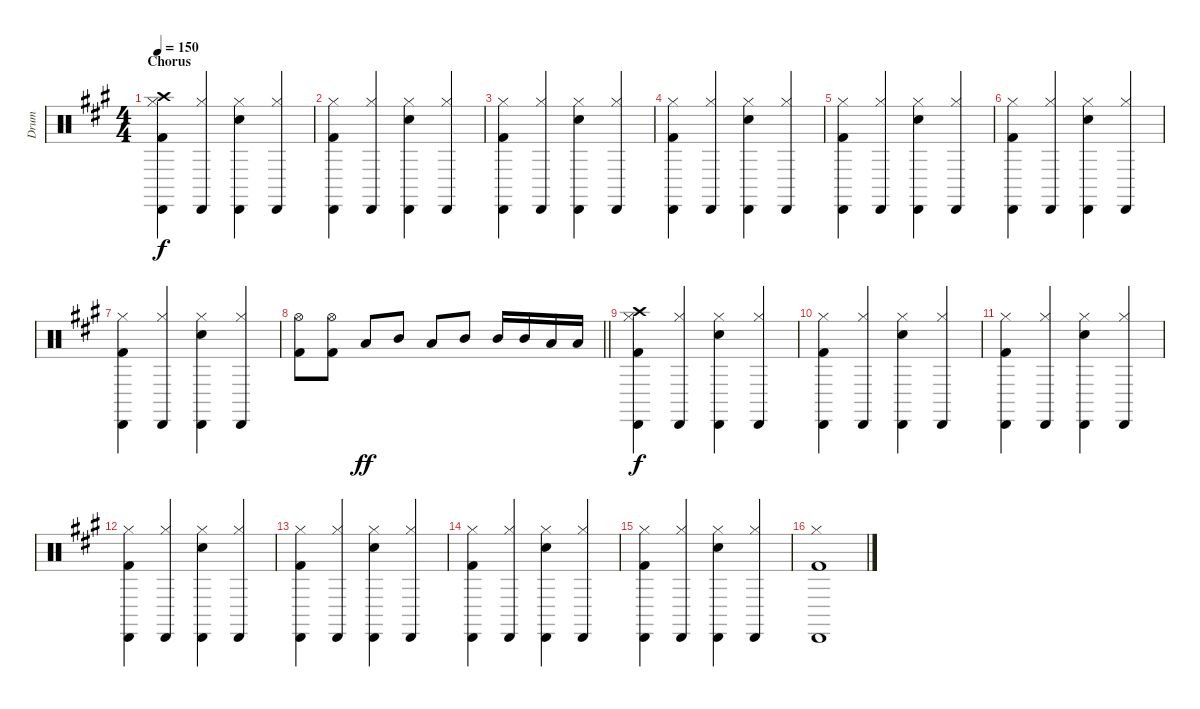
\track ("Drum " "Drum ") {instrument percussion}
\staff {score}
\articulation defaults
\ts (4 4)
\section ("" "Chorus")
\tempo 150
\clef neutral
\ks a
("Hi-Hat (closed)" "Crash high (hit)" "Cabasa (hit)" "Kick (hit) 2").4{dy f} ("Hi-Hat (closed)" "Cabasa (hit)").4 ("Hi-Hat (closed)" "Snare (hit) 2" "Cabasa (hit)").4 ("Hi-Hat (closed)" "Cabasa (hit)").4 |
("Hi-Hat (closed)" "Cabasa (hit)" "Kick (hit) 2").4 ("Hi-Hat (closed)" "Cabasa (hit)").4 ("Hi-Hat (closed)" "Snare (hit) 2" "Cabasa (hit)").4 ("Hi-Hat (closed)" "Cabasa (hit)").4 |
("Hi-Hat (closed)" "Cabasa (hit)" "Kick (hit) 2").4 ("Hi-Hat (closed)" "Cabasa (hit)").4 ("Hi-Hat (closed)" "Snare (hit) 2" "Cabasa (hit)").4 ("Hi-Hat (closed)" "Cabasa (hit)").4 |
("Hi-Hat (closed)" "Cabasa (hit)" "Kick (hit) 2").4 ("Hi-Hat (closed)" "Cabasa (hit)").4 ("Hi-Hat (closed)" "Snare (hit) 2" "Cabasa (hit)").4 ("Hi-Hat (closed)" "Cabasa (hit)").4 |
("Hi-Hat (closed)" "Cabasa (hit)" "Kick (hit) 2").4 ("Hi-Hat (closed)" "Cabasa (hit)").4 ("Hi-Hat (closed)" "Snare (hit) 2" "Cabasa (hit)").4 ("Hi-Hat (closed)" "Cabasa (hit)").4 |
("Hi-Hat (closed)" "Cabasa (hit)" "Kick (hit) 2").4 ("Hi-Hat (closed)" "Cabasa (hit)").4 ("Hi-Hat (closed)" "Snare (hit) 2" "Cabasa (hit)").4 ("Hi-Hat (closed)" "Cabasa (hit)").4 |
("Hi-Hat (closed)" "Cabasa (hit)" "Kick (hit) 2").4 ("Hi-Hat (closed)" "Cabasa (hit)").4 ("Hi-Hat (closed)" "Snare (hit) 2" "Cabasa (hit)").4 ("Hi-Hat (closed)" "Cabasa (hit)").4 |
\barLineRight lightlight
("Hi-Hat (open)" "Kick (hit) 2").8 ("Hi-Hat (open)" "Kick (hit) 2").8 "Low Tom (hit)".8{dy ff} "Mid Tom (hit)".8 "Low Tom (hit)".8 "Mid Tom (hit)".8 "Mid Tom (hit)".16 "Mid Tom (hit)".16 "Low Tom (hit)".16 "Low Tom (hit)".16 |
\section ("" "")
("Hi-Hat (closed)" "Crash high (hit)" "Cabasa (hit)" "Kick (hit) 2").4{dy f} ("Hi-Hat (closed)" "Cabasa (hit)").4 ("Hi-Hat (closed)" "Snare (hit) 2" "Cabasa (hit)").4 ("Hi-Hat (closed)" "Cabasa (hit)").4 |
("Hi-Hat (closed)" "Cabasa (hit)" "Kick (hit) 2").4 ("Hi-Hat (closed)" "Cabasa (hit)").4 ("Hi-Hat (closed)" "Snare (hit) 2" "Cabasa (hit)").4 ("Hi-Hat (closed)" "Cabasa (hit)").4 |
("Hi-Hat (closed)" "Cabasa (hit)" "Kick (hit) 2").4 ("Hi-Hat (closed)" "Cabasa (hit)").4 ("Hi-Hat (closed)" "Snare (hit) 2" "Cabasa (hit)").4 ("Hi-Hat (closed)" "Cabasa (hit)").4 |
("Hi-Hat (closed)" "Cabasa (hit)" "Kick (hit) 2").4 ("Hi-Hat (closed)" "Cabasa (hit)").4 ("Hi-Hat (closed)" "Snare (hit) 2" "Cabasa (hit)").4 ("Hi-Hat (closed)" "Cabasa (hit)").4 |
("Hi-Hat (closed)" "Cabasa (hit)" "Kick (hit) 2").4 ("Hi-Hat (closed)" "Cabasa (hit)").4 ("Hi-Hat (closed)" "Snare (hit) 2" "Cabasa (hit)").4 ("Hi-Hat (closed)" "Cabasa (hit)").4 |
("Hi-Hat (closed)" "Cabasa (hit)" "Kick (hit) 2").4 ("Hi-Hat (closed)" "Cabasa (hit)").4 ("Hi-Hat (closed)" "Snare (hit) 2" "Cabasa (hit)").4 ("Hi-Hat (closed)" "Cabasa (hit)").4 |
("Hi-Hat (closed)" "Cabasa (hit)" "Kick (hit) 2").4 ("Hi-Hat (closed)" "Cabasa (hit)").4 ("Hi-Hat (closed)" "Snare (hit) 2" "Cabasa (hit)").4 ("Hi-Hat (closed)" "Cabasa (hit)").4 |
("Hi-Hat (closed)" "Cabasa (hit)" "Kick (hit) 2").1
